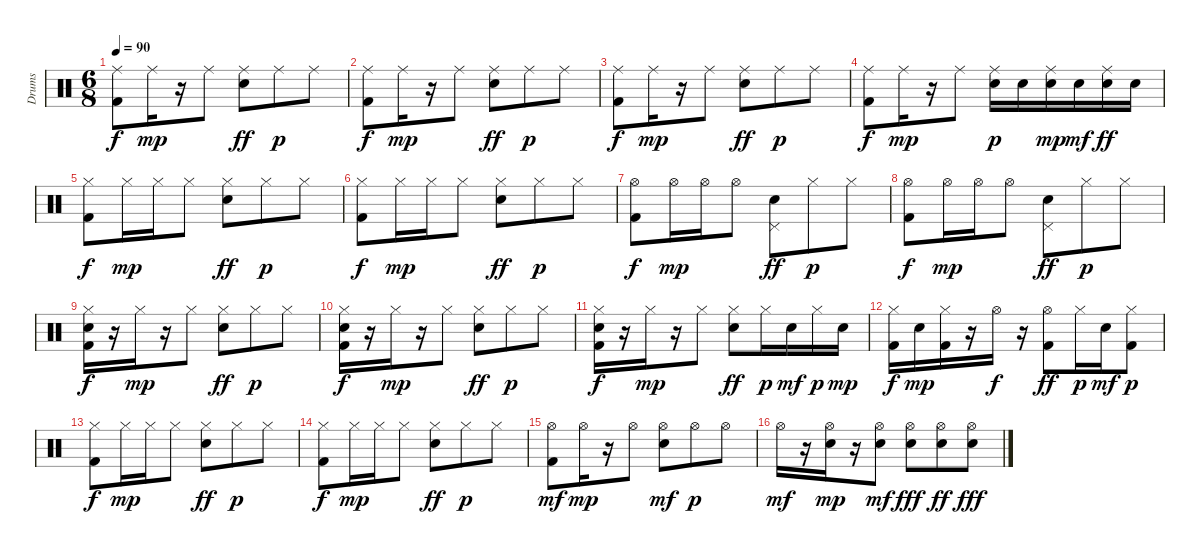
\track ("Drums" "Drums") {instrument percussion}
\staff {score}
\articulation defaults
\ts (6 8)
\tempo 90
\clef neutral
\ks c
("Kick (hit) 2" "Ride (middle)").8{dy f} "Ride (middle)".16{dy mp} r.16 "Ride (middle)".8 ("Snare (hit) 2" "Ride (middle)").8{dy ff} "Ride (middle)".8{dy p} "Ride (middle)".8 |
("Kick (hit) 2" "Ride (middle)").8{dy f} "Ride (middle)".16{dy mp} r.16 "Ride (middle)".8 ("Snare (hit) 2" "Ride (middle)").8{dy ff} "Ride (middle)".8{dy p} "Ride (middle)".8 |
("Kick (hit) 2" "Ride (middle)").8{dy f} "Ride (middle)".16{dy mp} r.16 "Ride (middle)".8 ("Snare (hit) 2" "Ride (middle)").8{dy ff} "Ride (middle)".8{dy p} "Ride (middle)".8 |
("Kick (hit) 2" "Ride (middle)").8{dy f} "Ride (middle)".16{dy mp} r.16 "Ride (middle)".8 ("Ride (middle)" "Snare (hit) 2").16{dy p} "Snare (hit) 2".16 ("Ride (middle)" "Snare (hit) 2").16{dy mp} "Snare (hit) 2".16{dy mf} ("Ride (middle)" "Snare (hit) 2").16{dy ff} "Snare (hit) 2".16 |
("Kick (hit) 2" "Hi-Hat (closed)").8{dy f} "Hi-Hat (closed)".16{dy mp} "Hi-Hat (closed)".16 "Hi-Hat (closed)".8 ("Hi-Hat (closed)" "Snare (hit) 2").8{dy ff} "Hi-Hat (closed)".8{dy p} "Hi-Hat (closed)".8 |
("Kick (hit) 2" "Hi-Hat (closed)").8{dy f} "Hi-Hat (closed)".16{dy mp} "Hi-Hat (closed)".16 "Hi-Hat (closed)".8 ("Hi-Hat (closed)" "Snare (hit) 2").8{dy ff} "Hi-Hat (closed)".8{dy p} "Hi-Hat (closed)".8 |
("Kick (hit) 2" "Hi-Hat (open)").8{dy f} "Hi-Hat (open)".16{dy mp} "Hi-Hat (open)".16 "Hi-Hat (open)".8 ("Snare (hit) 2" "Pedal Hi-Hat (hit)").8{dy ff} "Hi-Hat (closed)".8{dy p} "Hi-Hat (closed)".8 |
("Kick (hit) 2" "Hi-Hat (open)").8{dy f} "Hi-Hat (open)".16{dy mp} "Hi-Hat (open)".16 "Hi-Hat (open)".8 ("Snare (hit) 2" "Pedal Hi-Hat (hit)").8{dy ff} "Hi-Hat (closed)".8{dy p} "Hi-Hat (closed)".8 |
("Hi-Hat (closed)" "Snare (hit) 2" "Kick (hit) 2").16{dy f} r.16 "Hi-Hat (closed)".16{dy mp} r.16 "Hi-Hat (closed)".8 ("Hi-Hat (closed)" "Snare (hit) 2").8{dy ff} "Hi-Hat (closed)".8{dy p} "Hi-Hat (closed)".8 |
("Hi-Hat (closed)" "Snare (hit) 2" "Kick (hit) 2").16{dy f} r.16 "Hi-Hat (closed)".16{dy mp} r.16 "Hi-Hat (closed)".8 ("Hi-Hat (closed)" "Snare (hit) 2").8{dy ff} "Hi-Hat (closed)".8{dy p} "Hi-Hat (closed)".8 |
("Hi-Hat (closed)" "Snare (hit) 2" "Kick (hit) 2").16{dy f} r.16 "Hi-Hat (closed)".16{dy mp} r.16 "Hi-Hat (closed)".8 ("Hi-Hat (closed)" "Snare (hit) 2").8{dy ff} "Hi-Hat (closed)".16{dy p} "Snare (hit) 2".16{dy mf} "Hi-Hat (closed)".16{dy p} "Snare (hit) 2".16{dy mp} |
("Hi-Hat (closed)" "Kick (hit) 2").16{dy f} "Snare (hit) 2".16{dy mp} ("Hi-Hat (closed)" "Kick (hit) 2").16 r.16 "Hi-Hat (open)".16{dy f} r.16 ("Hi-Hat (open)" "Kick (hit) 2").8{dy ff} "Hi-Hat (closed)".16{dy p} "Snare (hit) 2".16{dy mf} ("Hi-Hat (closed)" "Kick (hit) 2").8{dy p} |
("Kick (hit) 2" "Hi-Hat (closed)").8{dy f} "Hi-Hat (closed)".16{dy mp} "Hi-Hat (closed)".16 "Hi-Hat (closed)".8 ("Hi-Hat (closed)" "Snare (hit) 2").8{dy ff} "Hi-Hat (closed)".8{dy p} "Hi-Hat (closed)".8 |
("Kick (hit) 2" "Hi-Hat (closed)").8{dy f} "Hi-Hat (closed)".16{dy mp} "Hi-Hat (closed)".16 "Hi-Hat (closed)".8 ("Hi-Hat (closed)" "Snare (hit) 2").8{dy ff} "Hi-Hat (closed)".8{dy p} "Hi-Hat (closed)".8 |
("Kick (hit) 2" "Hi-Hat (open)").8{dy mf} "Hi-Hat (open)".16{dy mp} r.16 "Hi-Hat (open)".8 ("Snare (hit) 2" "Hi-Hat (open)").8{dy mf} "Hi-Hat (open)".8{dy p} "Hi-Hat (open)".8 |
"Hi-Hat (open)".16{dy mf} r.16 ("Snare (hit) 2" "Hi-Hat (open)").16{dy mp} r.16 ("Hi-Hat (open)" "Snare (hit) 2").8{dy mf} ("Snare (hit) 2" "Hi-Hat (open)").8{dy fff} ("Hi-Hat (open)" "Snare (hit) 2").8{dy ff} ("Hi-Hat (open)" "Snare (hit) 2").8{dy fff}
